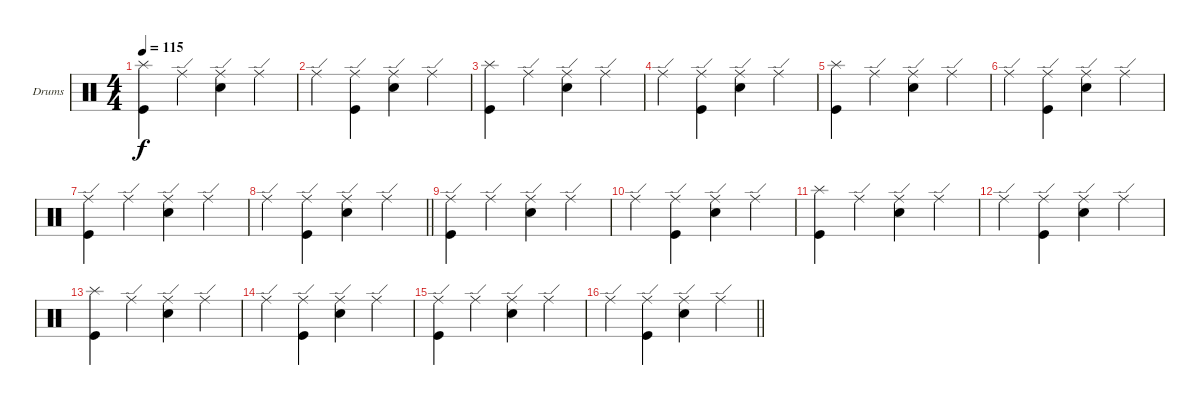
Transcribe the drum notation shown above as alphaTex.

\bracketExtendMode groupsimilarinstruments
\firstSystemTrackNameOrientation horizontal
\otherSystemsTrackNameOrientation horizontal
\track ("Drumkit" "Drums") {instrument percussion}
\staff {score}
\articulation defaults
\ts (4 4)
\tempo 115
\clef neutral
\ks c
("Splash (hit)" "Kick (hit)").4{dy f} "Ride (edge)".4 ("Ride (edge)" "Snare (hit) 2").4 "Ride (edge)".4 |
"Ride (edge)".4 ("Ride (edge)" "Kick (hit)").4 ("Ride (edge)" "Snare (hit) 2").4 "Ride (edge)".4 |
("Splash (hit)" "Kick (hit)").4 "Ride (edge)".4 ("Ride (edge)" "Snare (hit) 2").4 "Ride (edge)".4 |
"Ride (edge)".4 ("Ride (edge)" "Kick (hit)").4 ("Ride (edge)" "Snare (hit) 2").4 "Ride (edge)".4 |
("Splash (hit)" "Kick (hit)").4 "Ride (edge)".4 ("Ride (edge)" "Snare (hit) 2").4 "Ride (edge)".4 |
"Ride (edge)".4 ("Ride (edge)" "Kick (hit)").4 ("Ride (edge)" "Snare (hit) 2").4 "Ride (edge)".4 |
("Ride (edge)" "Kick (hit)").4 "Ride (edge)".4 ("Ride (edge)" "Snare (hit) 2").4 "Ride (edge)".4 |
\barLineRight lightlight "Ride (edge)".4
("Ride (edge)" "Kick (hit)").4 ("Ride (edge)" "Snare (hit) 2").4 "Ride (edge)".4 |
("Ride (edge)" "Kick (hit)").4 "Ride (edge)".4 ("Ride (edge)" "Snare (hit) 2").4 "Ride (edge)".4 |
"Ride (edge)".4 ("Ride (edge)" "Kick (hit)").4 ("Ride (edge)" "Snare (hit) 2").4 "Ride (edge)".4 |
("Splash (hit)" "Kick (hit)").4 "Ride (edge)".4 ("Ride (edge)" "Snare (hit) 2").4 "Ride (edge)".4 |
"Ride (edge)".4 ("Ride (edge)" "Kick (hit)").4 ("Ride (edge)" "Snare (hit) 2").4 "Ride (edge)".4 |
("Splash (hit)" "Kick (hit)").4 "Ride (edge)".4 ("Ride (edge)" "Snare (hit) 2").4 "Ride (edge)".4 |
"Ride (edge)".4 ("Ride (edge)" "Kick (hit)").4 ("Ride (edge)" "Snare (hit) 2").4 "Ride (edge)".4 |
("Ride (edge)" "Kick (hit)").4 "Ride (edge)".4 ("Ride (edge)" "Snare (hit) 2").4 "Ride (edge)".4 |
\barLineRight lightlight "Ride (edge)".4
("Ride (edge)" "Kick (hit)").4 ("Ride (edge)" "Snare (hit) 2").4 "Ride (edge)".4
